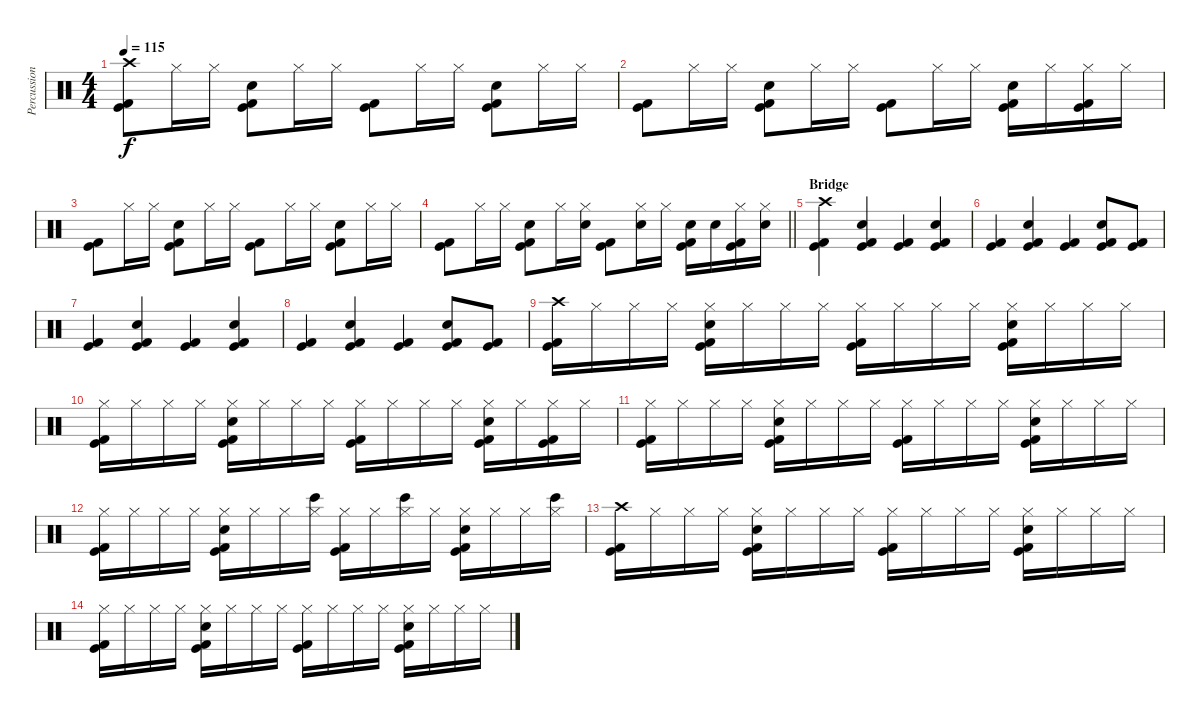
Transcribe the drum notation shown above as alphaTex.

\track ("Percussion" "Percussion") {instrument percussion}
\staff {score}
\articulation defaults
\ts (4 4)
\tempo 115
\clef neutral
\ks c
("Crash high (hit)" "Kick (hit)" "Kick (hit) 2").8{dy f} "Hi-Hat (closed)".16 "Hi-Hat (closed)".16 ("Electric Snare (hit)" "Kick (hit)" "Kick (hit) 2").8 "Hi-Hat (closed)".16 "Hi-Hat (closed)".16 ("Kick (hit)" "Kick (hit) 2").8 "Hi-Hat (closed)".16 "Hi-Hat (closed)".16 ("Electric Snare (hit)" "Kick (hit)" "Kick (hit) 2").8 "Hi-Hat (closed)".16 "Hi-Hat (closed)".16 |
("Kick (hit)" "Kick (hit) 2").8 "Hi-Hat (closed)".16 "Hi-Hat (closed)".16 ("Electric Snare (hit)" "Kick (hit)" "Kick (hit) 2").8 "Hi-Hat (closed)".16 "Hi-Hat (closed)".16 ("Kick (hit)" "Kick (hit) 2").8 "Hi-Hat (closed)".16 "Hi-Hat (closed)".16 ("Electric Snare (hit)" "Kick (hit)" "Kick (hit) 2").16 "Hi-Hat (closed)".16 ("Hi-Hat (closed)" "Kick (hit)" "Kick (hit) 2").16 "Hi-Hat (closed)".16 |
("Kick (hit)" "Kick (hit) 2").8 "Hi-Hat (closed)".16 "Hi-Hat (closed)".16 ("Electric Snare (hit)" "Kick (hit)" "Kick (hit) 2").8 "Hi-Hat (closed)".16 "Hi-Hat (closed)".16 ("Kick (hit)" "Kick (hit) 2").8 "Hi-Hat (closed)".16 "Hi-Hat (closed)".16 ("Electric Snare (hit)" "Kick (hit)" "Kick (hit) 2").8 "Hi-Hat (closed)".16 "Hi-Hat (closed)".16 |
\barLineRight lightlight
("Kick (hit)" "Kick (hit) 2").8 "Hi-Hat (closed)".16 "Hi-Hat (closed)".16 ("Electric Snare (hit)" "Kick (hit)" "Kick (hit) 2").8 "Hi-Hat (closed)".16 ("Hi-Hat (closed)" "Electric Snare (hit)").16 ("Kick (hit)" "Kick (hit) 2").8 ("Hi-Hat (closed)" "Electric Snare (hit)").16 "Hi-Hat (closed)".16 ("Electric Snare (hit)" "Kick (hit)" "Kick (hit) 2").16 "Electric Snare (hit)".16 ("Hi-Hat (closed)" "Kick (hit)" "Kick (hit) 2").16 ("Hi-Hat (closed)" "Electric Snare (hit)").16 |
\section ("" "Bridge")
("Crash high (hit)" "Kick (hit)" "Kick (hit) 2").4 ("Hand Clap (hit)" "Kick (hit)" "Kick (hit) 2").4 ("Kick (hit)" "Kick (hit) 2").4 ("Hand Clap (hit)" "Kick (hit)" "Kick (hit) 2").4 |
("Kick (hit)" "Kick (hit) 2").4 ("Hand Clap (hit)" "Kick (hit)" "Kick (hit) 2").4 ("Kick (hit)" "Kick (hit) 2").4 ("Hand Clap (hit)" "Kick (hit)" "Kick (hit) 2").8 ("Kick (hit)" "Kick (hit) 2").8 |
("Kick (hit)" "Kick (hit) 2").4 ("Hand Clap (hit)" "Kick (hit)" "Kick (hit) 2").4 ("Kick (hit)" "Kick (hit) 2").4 ("Hand Clap (hit)" "Kick (hit)" "Kick (hit) 2").4 |
("Kick (hit)" "Kick (hit) 2").4 ("Hand Clap (hit)" "Kick (hit)" "Kick (hit) 2").4 ("Kick (hit)" "Kick (hit) 2").4 ("Hand Clap (hit)" "Kick (hit)" "Kick (hit) 2").8 ("Kick (hit)" "Kick (hit) 2").8 |
("Crash high (hit)" "Kick (hit)" "Kick (hit) 2").16 "Hi-Hat (closed)".16 "Hi-Hat (closed)".16 "Hi-Hat (closed)".16 ("Hi-Hat (closed)" "Hand Clap (hit)" "Kick (hit)" "Kick (hit) 2").16 "Hi-Hat (closed)".16 "Hi-Hat (closed)".16 "Hi-Hat (closed)".16 ("Hi-Hat (closed)" "Kick (hit)" "Kick (hit) 2").16 "Hi-Hat (closed)".16 "Hi-Hat (closed)".16 "Hi-Hat (closed)".16 ("Hi-Hat (closed)" "Hand Clap (hit)" "Kick (hit)" "Kick (hit) 2").16 "Hi-Hat (closed)".16 "Hi-Hat (closed)".16 "Hi-Hat (closed)".16 |
("Hi-Hat (closed)" "Kick (hit)" "Kick (hit) 2").16 "Hi-Hat (closed)".16 "Hi-Hat (closed)".16 "Hi-Hat (closed)".16 ("Hi-Hat (closed)" "Hand Clap (hit)" "Kick (hit)" "Kick (hit) 2").16 "Hi-Hat (closed)".16 "Hi-Hat (closed)".16 "Hi-Hat (closed)".16 ("Hi-Hat (closed)" "Kick (hit)" "Kick (hit) 2").16 "Hi-Hat (closed)".16 "Hi-Hat (closed)".16 "Hi-Hat (closed)".16 ("Hi-Hat (closed)" "Hand Clap (hit)" "Kick (hit)" "Kick (hit) 2").16 "Hi-Hat (closed)".16 ("Hi-Hat (closed)" "Kick (hit)" "Kick (hit) 2").16 "Hi-Hat (closed)".16 |
("Hi-Hat (closed)" "Kick (hit)" "Kick (hit) 2").16 "Hi-Hat (closed)".16 "Hi-Hat (closed)".16 "Hi-Hat (closed)".16 ("Hi-Hat (closed)" "Hand Clap (hit)" "Kick (hit)" "Kick (hit) 2").16 "Hi-Hat (closed)".16 "Hi-Hat (closed)".16 "Hi-Hat (closed)".16 ("Hi-Hat (closed)" "Kick (hit)" "Kick (hit) 2").16 "Hi-Hat (closed)".16 "Hi-Hat (closed)".16 "Hi-Hat (closed)".16 ("Hi-Hat (closed)" "Hand Clap (hit)" "Kick (hit)" "Kick (hit) 2").16 "Hi-Hat (closed)".16 "Hi-Hat (closed)".16 "Hi-Hat (closed)".16 |
("Hi-Hat (closed)" "Kick (hit)" "Kick (hit) 2").16 "Hi-Hat (closed)".16 "Hi-Hat (closed)".16 "Hi-Hat (closed)".16 ("Hi-Hat (closed)" "Hand Clap (hit)" "Kick (hit)" "Kick (hit) 2").16 "Hi-Hat (closed)".16 "Hi-Hat (closed)".16 ("Hi-Hat (closed)" "Bongo High (hit)").16 ("Hi-Hat (closed)" "Kick (hit)" "Kick (hit) 2").16 "Hi-Hat (closed)".16 ("Hi-Hat (closed)" "Bongo High (hit)").16 "Hi-Hat (closed)".16 ("Hi-Hat (closed)" "Hand Clap (hit)" "Kick (hit)" "Kick (hit) 2").16 "Hi-Hat (closed)".16 "Hi-Hat (closed)".16 ("Hi-Hat (closed)" "Bongo High (hit)").16 |
("Crash high (hit)" "Kick (hit)" "Kick (hit) 2").16 "Hi-Hat (closed)".16 "Hi-Hat (closed)".16 "Hi-Hat (closed)".16 ("Hi-Hat (closed)" "Hand Clap (hit)" "Kick (hit)" "Kick (hit) 2").16 "Hi-Hat (closed)".16 "Hi-Hat (closed)".16 "Hi-Hat (closed)".16 ("Hi-Hat (closed)" "Kick (hit)" "Kick (hit) 2").16 "Hi-Hat (closed)".16 "Hi-Hat (closed)".16 "Hi-Hat (closed)".16 ("Hi-Hat (closed)" "Hand Clap (hit)" "Kick (hit)" "Kick (hit) 2").16 "Hi-Hat (closed)".16 "Hi-Hat (closed)".16 "Hi-Hat (closed)".16 |
("Hi-Hat (closed)" "Kick (hit)" "Kick (hit) 2").16 "Hi-Hat (closed)".16 "Hi-Hat (closed)".16 "Hi-Hat (closed)".16 ("Hi-Hat (closed)" "Hand Clap (hit)" "Kick (hit)" "Kick (hit) 2").16 "Hi-Hat (closed)".16 "Hi-Hat (closed)".16 "Hi-Hat (closed)".16 ("Hi-Hat (closed)" "Kick (hit)" "Kick (hit) 2").16 "Hi-Hat (closed)".16 "Hi-Hat (closed)".16 "Hi-Hat (closed)".16 ("Hi-Hat (closed)" "Hand Clap (hit)" "Kick (hit)" "Kick (hit) 2").16 "Hi-Hat (closed)".16 "Hi-Hat (closed)".16 "Hi-Hat (closed)".16
